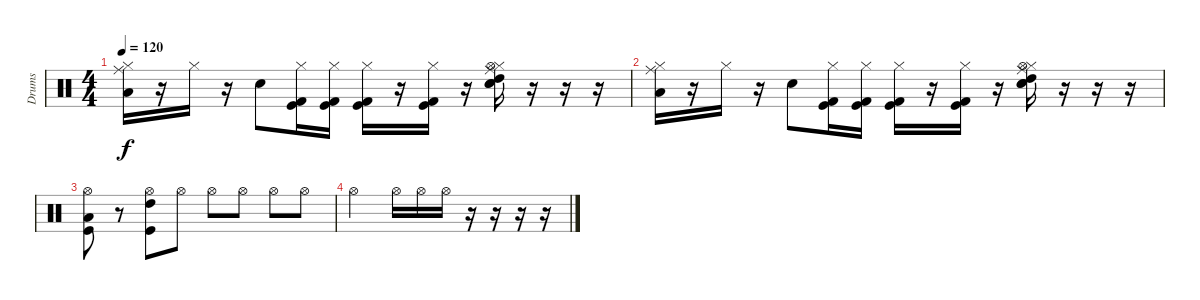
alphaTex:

\track ("Drums" "Drums") {instrument percussion}
\staff {score}
\articulation defaults
\ts (4 4)
\tempo 120
\clef neutral
\ks c
("Hi-Hat (closed)" "Ride (middle)" "Low Tom (hit)").16{dy f} r.16 "Hi-Hat (closed)".16 r.16 "Snare (hit) 2".8 ("Kick (hit)" "Hi-Hat (closed)" "Kick (hit) 2").16 ("Kick (hit)" "Hi-Hat (closed)" "Kick (hit) 2").16 ("Kick (hit)" "Hi-Hat (closed)" "Kick (hit) 2").16 r.16 ("Kick (hit)" "Hi-Hat (closed)" "Kick (hit) 2").16 r.16 ("Snare (hit) 2" "Ride (middle)" "Hi-Hat (closed)" "Hi-Hat (open)" "High Tom (hit)" "Electric Snare (hit)").16 r.16 r.16 r.16 |
("Hi-Hat (closed)" "Ride (middle)" "Low Tom (hit)").16 r.16 "Hi-Hat (closed)".16 r.16 "Snare (hit) 2".8 ("Kick (hit)" "Hi-Hat (closed)" "Kick (hit) 2").16 ("Kick (hit)" "Hi-Hat (closed)" "Kick (hit) 2").16 ("Kick (hit)" "Hi-Hat (closed)" "Kick (hit) 2").16 r.16 ("Kick (hit)" "Hi-Hat (closed)" "Kick (hit) 2").16 r.16 ("Snare (hit) 2" "Ride (middle)" "Hi-Hat (closed)" "Hi-Hat (open)" "High Tom (hit)" "Electric Snare (hit)").16 r.16 r.16 r.16 |
("Kick (hit)" "Low Tom (hit)" "Hi-Hat (open)").8 r.8 ("Kick (hit)" "High Tom (hit)" "Hi-Hat (open)").8 "Hi-Hat (open)".8 "Hi-Hat (open)".8 "Hi-Hat (open)".8 "Hi-Hat (open)".8 "Hi-Hat (open)".8 |
"Hi-Hat (open)".2 "Hi-Hat (open)".16 "Hi-Hat (open)".16 "Hi-Hat (open)".16 r.16 r.16 r.16 r.16
